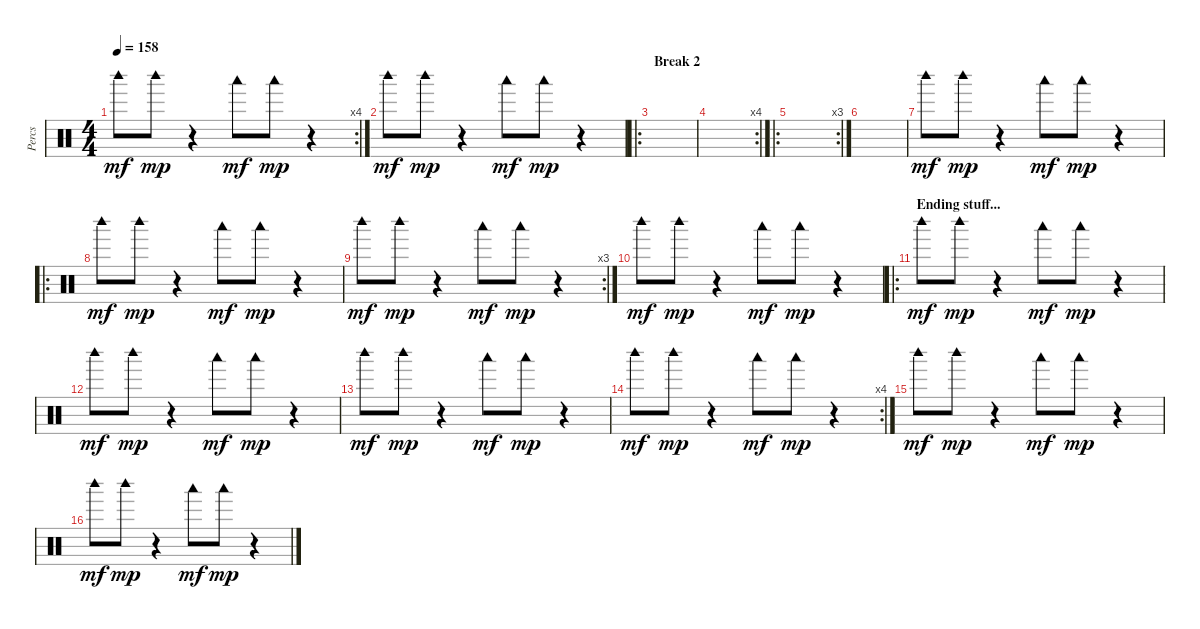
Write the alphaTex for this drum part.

\track ("Percs" "Percs") {instrument percussion}
\staff {score}
\articulation defaults
\rc 4
\ts (4 4)
\tempo 158
\clef neutral
\ks c "Woodblock high (hit)".8{dy mf} "Woodblock high (hit)".8{dy mp}
r.4 "Woodblock low (hit)".8{dy mf} "Woodblock low (hit)".8{dy mp} r.4 |
"Woodblock high (hit)".8{dy mf} "Woodblock high (hit)".8{dy mp} r.4 "Woodblock low (hit)".8{dy mf} "Woodblock low (hit)".8{dy mp} r.4 |
\ro
\section ("" "Break 2")
|
\rc 4
|
\ro
\rc 3
|
|
"Woodblock high (hit)".8{dy mf} "Woodblock high (hit)".8{dy mp} r.4 "Woodblock low (hit)".8{dy mf} "Woodblock low (hit)".8{dy mp} r.4 |
\ro "Woodblock high (hit)".8{dy mf} "Woodblock high (hit)".8{dy mp}
r.4 "Woodblock low (hit)".8{dy mf} "Woodblock low (hit)".8{dy mp} r.4 |
\rc 3 "Woodblock high (hit)".8{dy mf} "Woodblock high (hit)".8{dy mp}
r.4 "Woodblock low (hit)".8{dy mf} "Woodblock low (hit)".8{dy mp} r.4 |
"Woodblock high (hit)".8{dy mf} "Woodblock high (hit)".8{dy mp} r.4 "Woodblock low (hit)".8{dy mf} "Woodblock low (hit)".8{dy mp} r.4 |
\ro
\section ("" "Ending stuff...")
"Woodblock high (hit)".8{dy mf} "Woodblock high (hit)".8{dy mp} r.4 "Woodblock low (hit)".8{dy mf} "Woodblock low (hit)".8{dy mp} r.4 |
"Woodblock high (hit)".8{dy mf} "Woodblock high (hit)".8{dy mp} r.4 "Woodblock low (hit)".8{dy mf} "Woodblock low (hit)".8{dy mp} r.4 |
"Woodblock high (hit)".8{dy mf} "Woodblock high (hit)".8{dy mp} r.4 "Woodblock low (hit)".8{dy mf} "Woodblock low (hit)".8{dy mp} r.4 |
\rc 4 "Woodblock high (hit)".8{dy mf} "Woodblock high (hit)".8{dy mp}
r.4 "Woodblock low (hit)".8{dy mf} "Woodblock low (hit)".8{dy mp} r.4 |
"Woodblock high (hit)".8{dy mf} "Woodblock high (hit)".8{dy mp} r.4 "Woodblock low (hit)".8{dy mf} "Woodblock low (hit)".8{dy mp} r.4 |
"Woodblock high (hit)".8{dy mf} "Woodblock high (hit)".8{dy mp} r.4 "Woodblock low (hit)".8{dy mf} "Woodblock low (hit)".8{dy mp} r.4
